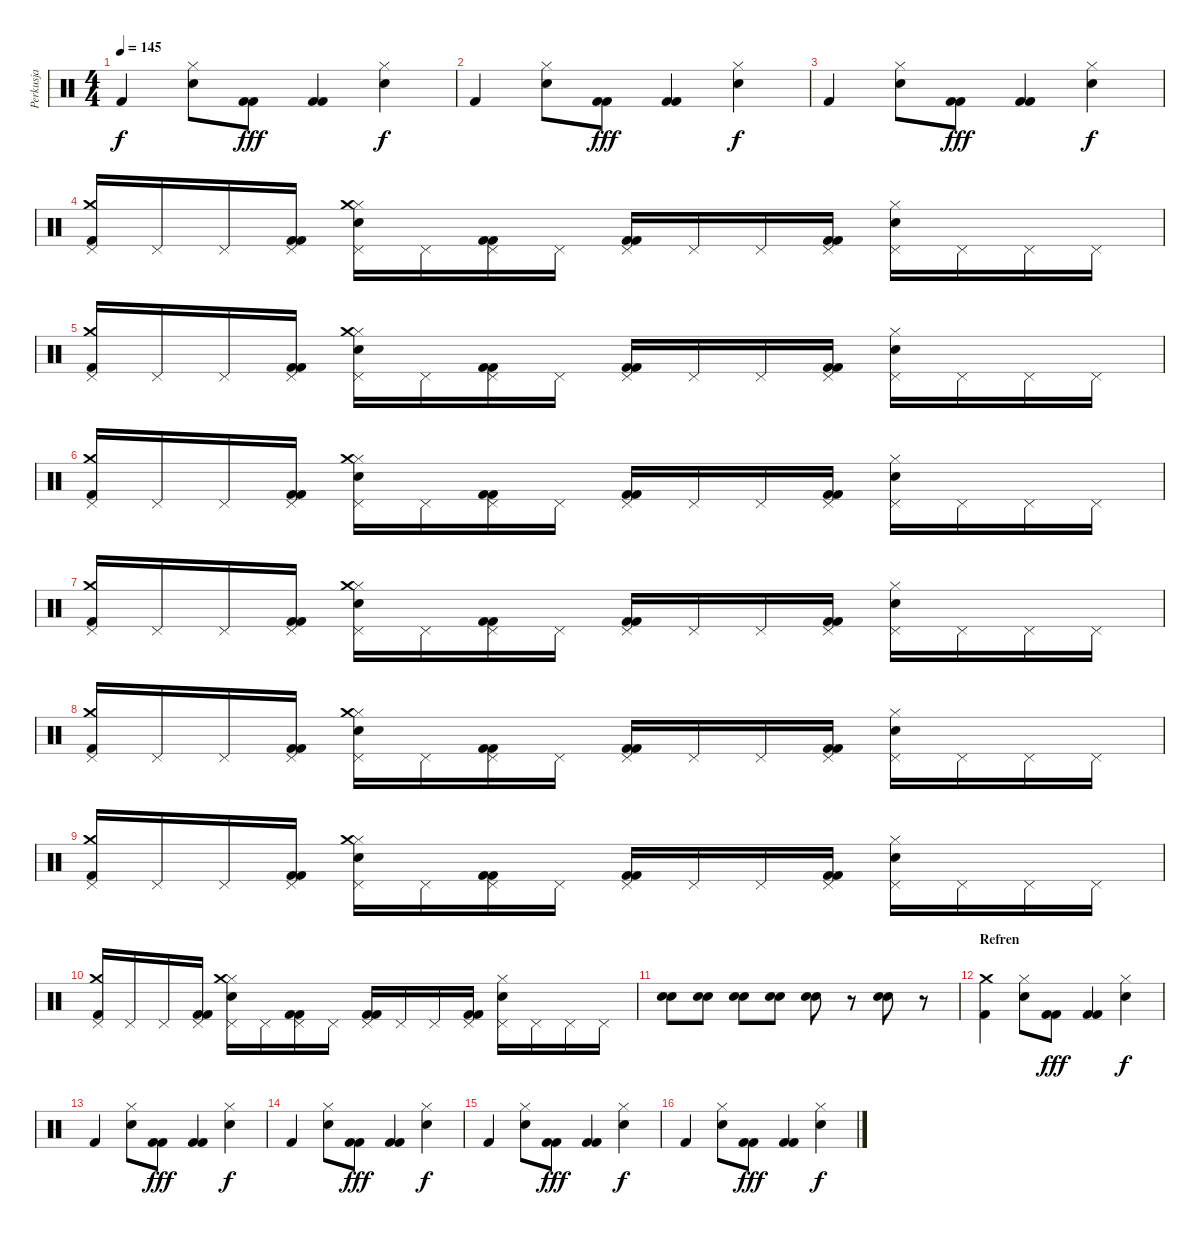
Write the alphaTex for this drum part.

\track ("Perkusja" "Perkusja") {instrument percussion}
\staff {score}
\articulation defaults
\ts (4 4)
\tempo 145
\clef neutral
\ks c "Kick (hit) 2".4{dy f}
("Hi-Hat (closed)" "Snare (hit) 2").8 ("Kick (hit) 2" "Kick (hit) 2").8{dy fff} ("Kick (hit) 2" "Kick (hit) 2").4 ("Hi-Hat (closed)" "Snare (hit) 2").4{dy f} |
"Kick (hit) 2".4 ("Hi-Hat (closed)" "Snare (hit) 2").8 ("Kick (hit) 2" "Kick (hit) 2").8{dy fff} ("Kick (hit) 2" "Kick (hit) 2").4 ("Hi-Hat (closed)" "Snare (hit) 2").4{dy f} |
"Kick (hit) 2".4 ("Hi-Hat (closed)" "Snare (hit) 2").8 ("Kick (hit) 2" "Kick (hit) 2").8{dy fff} ("Kick (hit) 2" "Kick (hit) 2").4 ("Hi-Hat (closed)" "Snare (hit) 2").4{dy f} |
("Kick (hit) 2" "Crash medium (hit)" "Pedal Hi-Hat (hit)").16 "Pedal Hi-Hat (hit)".16 "Pedal Hi-Hat (hit)".16 ("Kick (hit) 2" "Kick (hit) 2" "Pedal Hi-Hat (hit)").16 ("Hi-Hat (closed)" "Snare (hit) 2" "Crash medium (hit)" "Pedal Hi-Hat (hit)").16 "Pedal Hi-Hat (hit)".16 ("Kick (hit) 2" "Kick (hit) 2" "Pedal Hi-Hat (hit)").16 "Pedal Hi-Hat (hit)".16 ("Kick (hit) 2" "Kick (hit) 2" "Pedal Hi-Hat (hit)").16 "Pedal Hi-Hat (hit)".16 "Pedal Hi-Hat (hit)".16 ("Kick (hit) 2" "Kick (hit) 2" "Pedal Hi-Hat (hit)").16 ("Hi-Hat (closed)" "Snare (hit) 2" "Pedal Hi-Hat (hit)").16 "Pedal Hi-Hat (hit)".16 "Pedal Hi-Hat (hit)".16 "Pedal Hi-Hat (hit)".16 |
("Kick (hit) 2" "Crash medium (hit)" "Pedal Hi-Hat (hit)").16 "Pedal Hi-Hat (hit)".16 "Pedal Hi-Hat (hit)".16 ("Kick (hit) 2" "Kick (hit) 2" "Pedal Hi-Hat (hit)").16 ("Hi-Hat (closed)" "Snare (hit) 2" "Crash medium (hit)" "Pedal Hi-Hat (hit)").16 "Pedal Hi-Hat (hit)".16 ("Kick (hit) 2" "Kick (hit) 2" "Pedal Hi-Hat (hit)").16 "Pedal Hi-Hat (hit)".16 ("Kick (hit) 2" "Kick (hit) 2" "Pedal Hi-Hat (hit)").16 "Pedal Hi-Hat (hit)".16 "Pedal Hi-Hat (hit)".16 ("Kick (hit) 2" "Kick (hit) 2" "Pedal Hi-Hat (hit)").16 ("Hi-Hat (closed)" "Snare (hit) 2" "Pedal Hi-Hat (hit)").16 "Pedal Hi-Hat (hit)".16 "Pedal Hi-Hat (hit)".16 "Pedal Hi-Hat (hit)".16 |
("Kick (hit) 2" "Crash medium (hit)" "Pedal Hi-Hat (hit)").16 "Pedal Hi-Hat (hit)".16 "Pedal Hi-Hat (hit)".16 ("Kick (hit) 2" "Kick (hit) 2" "Pedal Hi-Hat (hit)").16 ("Hi-Hat (closed)" "Snare (hit) 2" "Crash medium (hit)" "Pedal Hi-Hat (hit)").16 "Pedal Hi-Hat (hit)".16 ("Kick (hit) 2" "Kick (hit) 2" "Pedal Hi-Hat (hit)").16 "Pedal Hi-Hat (hit)".16 ("Kick (hit) 2" "Kick (hit) 2" "Pedal Hi-Hat (hit)").16 "Pedal Hi-Hat (hit)".16 "Pedal Hi-Hat (hit)".16 ("Kick (hit) 2" "Kick (hit) 2" "Pedal Hi-Hat (hit)").16 ("Hi-Hat (closed)" "Snare (hit) 2" "Pedal Hi-Hat (hit)").16 "Pedal Hi-Hat (hit)".16 "Pedal Hi-Hat (hit)".16 "Pedal Hi-Hat (hit)".16 |
("Kick (hit) 2" "Crash medium (hit)" "Pedal Hi-Hat (hit)").16 "Pedal Hi-Hat (hit)".16 "Pedal Hi-Hat (hit)".16 ("Kick (hit) 2" "Kick (hit) 2" "Pedal Hi-Hat (hit)").16 ("Hi-Hat (closed)" "Snare (hit) 2" "Crash medium (hit)" "Pedal Hi-Hat (hit)").16 "Pedal Hi-Hat (hit)".16 ("Kick (hit) 2" "Kick (hit) 2" "Pedal Hi-Hat (hit)").16 "Pedal Hi-Hat (hit)".16 ("Kick (hit) 2" "Kick (hit) 2" "Pedal Hi-Hat (hit)").16 "Pedal Hi-Hat (hit)".16 "Pedal Hi-Hat (hit)".16 ("Kick (hit) 2" "Kick (hit) 2" "Pedal Hi-Hat (hit)").16 ("Hi-Hat (closed)" "Snare (hit) 2" "Pedal Hi-Hat (hit)").16 "Pedal Hi-Hat (hit)".16 "Pedal Hi-Hat (hit)".16 "Pedal Hi-Hat (hit)".16 |
("Kick (hit) 2" "Crash medium (hit)" "Pedal Hi-Hat (hit)").16 "Pedal Hi-Hat (hit)".16 "Pedal Hi-Hat (hit)".16 ("Kick (hit) 2" "Kick (hit) 2" "Pedal Hi-Hat (hit)").16 ("Hi-Hat (closed)" "Snare (hit) 2" "Crash medium (hit)" "Pedal Hi-Hat (hit)").16 "Pedal Hi-Hat (hit)".16 ("Kick (hit) 2" "Kick (hit) 2" "Pedal Hi-Hat (hit)").16 "Pedal Hi-Hat (hit)".16 ("Kick (hit) 2" "Kick (hit) 2" "Pedal Hi-Hat (hit)").16 "Pedal Hi-Hat (hit)".16 "Pedal Hi-Hat (hit)".16 ("Kick (hit) 2" "Kick (hit) 2" "Pedal Hi-Hat (hit)").16 ("Hi-Hat (closed)" "Snare (hit) 2" "Pedal Hi-Hat (hit)").16 "Pedal Hi-Hat (hit)".16 "Pedal Hi-Hat (hit)".16 "Pedal Hi-Hat (hit)".16 |
("Kick (hit) 2" "Crash medium (hit)" "Pedal Hi-Hat (hit)").16 "Pedal Hi-Hat (hit)".16 "Pedal Hi-Hat (hit)".16 ("Kick (hit) 2" "Kick (hit) 2" "Pedal Hi-Hat (hit)").16 ("Hi-Hat (closed)" "Snare (hit) 2" "Crash medium (hit)" "Pedal Hi-Hat (hit)").16 "Pedal Hi-Hat (hit)".16 ("Kick (hit) 2" "Kick (hit) 2" "Pedal Hi-Hat (hit)").16 "Pedal Hi-Hat (hit)".16 ("Kick (hit) 2" "Kick (hit) 2" "Pedal Hi-Hat (hit)").16 "Pedal Hi-Hat (hit)".16 "Pedal Hi-Hat (hit)".16 ("Kick (hit) 2" "Kick (hit) 2" "Pedal Hi-Hat (hit)").16 ("Hi-Hat (closed)" "Snare (hit) 2" "Pedal Hi-Hat (hit)").16 "Pedal Hi-Hat (hit)".16 "Pedal Hi-Hat (hit)".16 "Pedal Hi-Hat (hit)".16 |
("Kick (hit) 2" "Crash medium (hit)" "Pedal Hi-Hat (hit)").16 "Pedal Hi-Hat (hit)".16 "Pedal Hi-Hat (hit)".16 ("Kick (hit) 2" "Kick (hit) 2" "Pedal Hi-Hat (hit)").16 ("Hi-Hat (closed)" "Snare (hit) 2" "Crash medium (hit)" "Pedal Hi-Hat (hit)").16 "Pedal Hi-Hat (hit)".16 ("Kick (hit) 2" "Kick (hit) 2" "Pedal Hi-Hat (hit)").16 "Pedal Hi-Hat (hit)".16 ("Kick (hit) 2" "Kick (hit) 2" "Pedal Hi-Hat (hit)").16 "Pedal Hi-Hat (hit)".16 "Pedal Hi-Hat (hit)".16 ("Kick (hit) 2" "Kick (hit) 2" "Pedal Hi-Hat (hit)").16 ("Hi-Hat (closed)" "Snare (hit) 2" "Pedal Hi-Hat (hit)").16 "Pedal Hi-Hat (hit)".16 "Pedal Hi-Hat (hit)".16 "Pedal Hi-Hat (hit)".16 |
("Snare (hit) 2" "Snare (hit) 2").8 ("Snare (hit) 2" "Snare (hit) 2").8 ("Snare (hit) 2" "Snare (hit) 2").8 ("Snare (hit) 2" "Snare (hit) 2").8 ("Snare (hit) 2" "Snare (hit) 2").8 r.8 ("Snare (hit) 2" "Snare (hit) 2").8 r.8 |
\section ("" "Refren")
("Kick (hit) 2" "Crash medium (hit)").4 ("Hi-Hat (closed)" "Snare (hit) 2").8 ("Kick (hit) 2" "Kick (hit) 2").8{dy fff} ("Kick (hit) 2" "Kick (hit) 2").4 ("Hi-Hat (closed)" "Snare (hit) 2").4{dy f} |
"Kick (hit) 2".4 ("Hi-Hat (closed)" "Snare (hit) 2").8 ("Kick (hit) 2" "Kick (hit) 2").8{dy fff} ("Kick (hit) 2" "Kick (hit) 2").4 ("Hi-Hat (closed)" "Snare (hit) 2").4{dy f} |
"Kick (hit) 2".4 ("Hi-Hat (closed)" "Snare (hit) 2").8 ("Kick (hit) 2" "Kick (hit) 2").8{dy fff} ("Kick (hit) 2" "Kick (hit) 2").4 ("Hi-Hat (closed)" "Snare (hit) 2").4{dy f} |
"Kick (hit) 2".4 ("Hi-Hat (closed)" "Snare (hit) 2").8 ("Kick (hit) 2" "Kick (hit) 2").8{dy fff} ("Kick (hit) 2" "Kick (hit) 2").4 ("Hi-Hat (closed)" "Snare (hit) 2").4{dy f} |
"Kick (hit) 2".4 ("Hi-Hat (closed)" "Snare (hit) 2").8 ("Kick (hit) 2" "Kick (hit) 2").8{dy fff} ("Kick (hit) 2" "Kick (hit) 2").4 ("Hi-Hat (closed)" "Snare (hit) 2").4{dy f}
